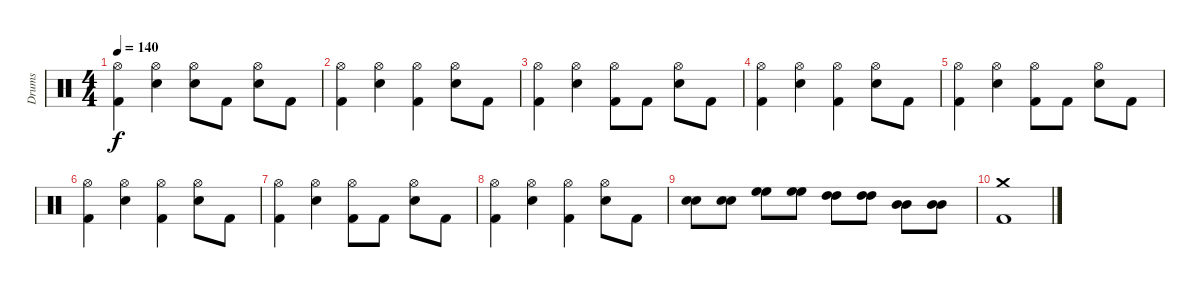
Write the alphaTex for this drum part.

\track ("Drums" "Drums") {instrument percussion}
\staff {score}
\articulation defaults
\ts (4 4)
\tempo 140
\clef neutral
\ks c
("Hi-Hat (open)" "Kick (hit) 2").4{dy f} ("Hi-Hat (open)" "Electric Snare (hit)").4 ("Hi-Hat (open)" "Electric Snare (hit)").8 "Kick (hit) 2".8 ("Hi-Hat (open)" "Electric Snare (hit)").8 "Kick (hit) 2".8 |
("Hi-Hat (open)" "Kick (hit) 2").4 ("Hi-Hat (open)" "Electric Snare (hit)").4 ("Hi-Hat (open)" "Kick (hit) 2").4 ("Hi-Hat (open)" "Electric Snare (hit)").8 "Kick (hit) 2".8 |
("Hi-Hat (open)" "Kick (hit) 2").4 ("Hi-Hat (open)" "Electric Snare (hit)").4 ("Hi-Hat (open)" "Kick (hit) 2").8 "Kick (hit) 2".8 ("Hi-Hat (open)" "Electric Snare (hit)").8 "Kick (hit) 2".8 |
("Hi-Hat (open)" "Kick (hit) 2").4 ("Hi-Hat (open)" "Electric Snare (hit)").4 ("Hi-Hat (open)" "Kick (hit) 2").4 ("Hi-Hat (open)" "Electric Snare (hit)").8 "Kick (hit) 2".8 |
("Hi-Hat (open)" "Kick (hit) 2").4 ("Hi-Hat (open)" "Electric Snare (hit)").4 ("Hi-Hat (open)" "Kick (hit) 2").8 "Kick (hit) 2".8 ("Hi-Hat (open)" "Electric Snare (hit)").8 "Kick (hit) 2".8 |
("Hi-Hat (open)" "Kick (hit) 2").4 ("Hi-Hat (open)" "Electric Snare (hit)").4 ("Hi-Hat (open)" "Kick (hit) 2").4 ("Hi-Hat (open)" "Electric Snare (hit)").8 "Kick (hit) 2".8 |
("Hi-Hat (open)" "Kick (hit) 2").4 ("Hi-Hat (open)" "Electric Snare (hit)").4 ("Hi-Hat (open)" "Kick (hit) 2").8 "Kick (hit) 2".8 ("Hi-Hat (open)" "Electric Snare (hit)").8 "Kick (hit) 2".8 |
("Hi-Hat (open)" "Kick (hit) 2").4 ("Hi-Hat (open)" "Electric Snare (hit)").4 ("Hi-Hat (open)" "Kick (hit) 2").4 ("Hi-Hat (open)" "Electric Snare (hit)").8 "Kick (hit) 2".8 |
("Electric Snare (hit)" "Snare (hit) 2").8 ("Electric Snare (hit)" "Snare (hit) 2").8 ("High Floor Tom (hit)" "High Floor Tom (hit)").8 ("High Floor Tom (hit)" "High Floor Tom (hit)").8 ("High Tom (hit)" "High Tom (hit)").8 ("High Tom (hit)" "High Tom (hit)").8 ("Mid Tom (hit)" "Mid Tom (hit)").8 ("Mid Tom (hit)" "Mid Tom (hit)").8 |
("Crash medium (hit)" "Kick (hit) 2").1
